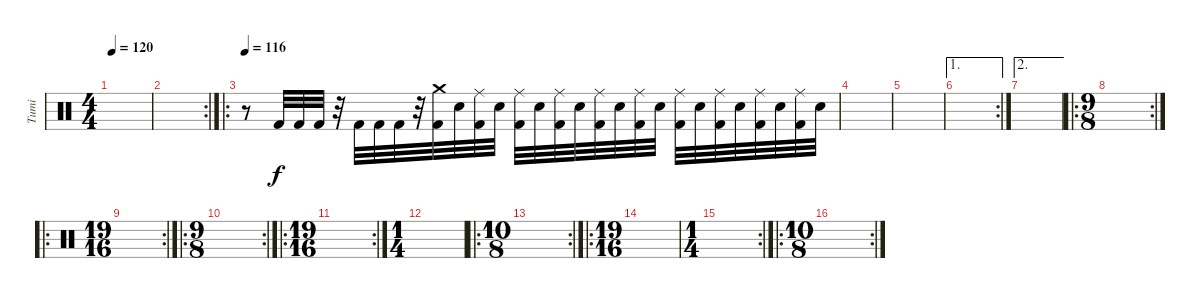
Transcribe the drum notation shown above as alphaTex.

\track ("Tumi" "Tumi") {instrument percussion}
\staff {score}
\articulation defaults
\ts (4 4)
\tempo 120
\clef neutral
\ks c
|
\rc 2
|
\ro
\tempo 116
r.8 "Kick (hit) 2".32{dy f} "Kick (hit) 2".32 "Kick (hit) 2".32 r.32 "Kick (hit) 2".32 "Kick (hit) 2".32 "Kick (hit) 2".32 r.32 ("Kick (hit) 2" "Crash medium (hit)").32 "Electric Snare (hit)".32 ("Kick (hit) 2" "Ride (middle)").32 "Electric Snare (hit)".32 ("Kick (hit) 2" "Ride (middle)").32 "Electric Snare (hit)".32 ("Kick (hit) 2" "Ride (middle)").32 "Electric Snare (hit)".32 ("Kick (hit) 2" "Ride (middle)").32 "Electric Snare (hit)".32 ("Kick (hit) 2" "Ride (middle)").32 "Electric Snare (hit)".32 ("Kick (hit) 2" "Ride (middle)").32 "Electric Snare (hit)".32 ("Kick (hit) 2" "Ride (middle)").32 "Electric Snare (hit)".32 ("Kick (hit) 2" "Ride (middle)").32 "Electric Snare (hit)".32 ("Kick (hit) 2" "Ride (middle)").32 "Electric Snare (hit)".32 |
|
|
\ae 1
\rc 2
|
\ae 2
|
\ro
\rc 2
\ts (9 8)
|
\ro
\rc 2
\ts (19 16)
|
\ro
\rc 2
\ts (9 8)
|
\ro
\rc 2
\ts (19 16)
|
\ts (1 4)
|
\ro
\rc 2
\ts (10 8)
|
\ro
\ts (19 16)
|
\rc 2
\ts (1 4)
|
\ro
\rc 2
\ts (10 8)
